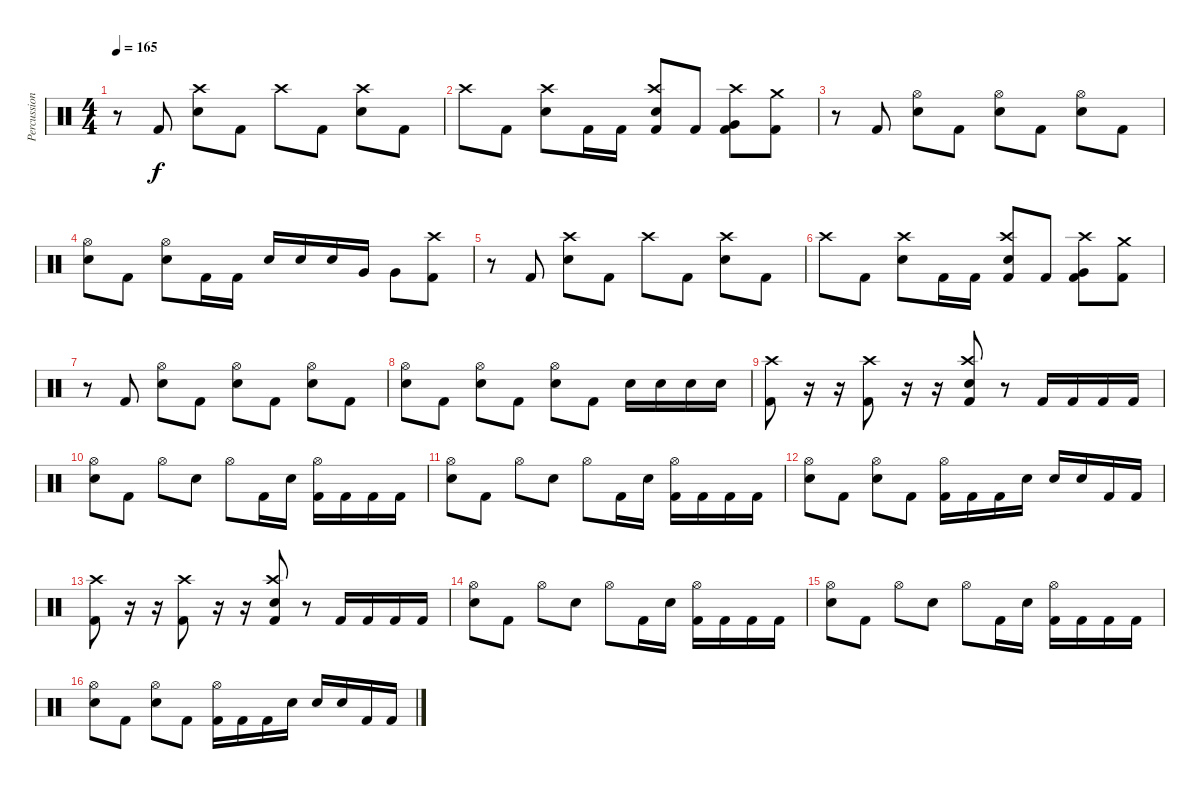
\track ("Percussion" "Percussion") {instrument percussion}
\staff {score}
\articulation defaults
\ts (4 4)
\tempo 165
\clef neutral
\ks c
r.8{dy f} "Kick (hit) 2".8 ("Crash high (hit)" "Electric Snare (hit)").8 "Kick (hit) 2".8 "Crash high (hit)".8 "Kick (hit) 2".8 ("Crash high (hit)" "Electric Snare (hit)").8 "Kick (hit) 2".8 |
"Crash high (hit)".8 "Kick (hit) 2".8 ("Crash high (hit)" "Electric Snare (hit)").8 "Kick (hit) 2".16 "Kick (hit) 2".16 ("Crash high (hit)" "Electric Snare (hit)" "Kick (hit) 2").8 "Kick (hit) 2".8 ("Crash high (hit)" "Very Low Tom (hit)" "Kick (hit) 2").8 ("Crash medium (hit)" "Kick (hit) 2").8 |
r.8 "Kick (hit) 2".8 ("Hi-Hat (open)" "Electric Snare (hit)").8 "Kick (hit) 2".8 ("Hi-Hat (open)" "Electric Snare (hit)").8 "Kick (hit) 2".8 ("Hi-Hat (open)" "Electric Snare (hit)").8 "Kick (hit) 2".8 |
("Hi-Hat (open)" "Electric Snare (hit)").8 "Kick (hit) 2".8 ("Hi-Hat (open)" "Electric Snare (hit)").8 "Kick (hit) 2".16 "Kick (hit) 2".16 "Electric Snare (hit)".16 "Electric Snare (hit)".16 "Electric Snare (hit)".16 "Very Low Tom (hit)".16 "Very Low Tom (hit)".8 ("Crash high (hit)" "Kick (hit) 2").8 |
r.8 "Kick (hit) 2".8 ("Crash high (hit)" "Electric Snare (hit)").8 "Kick (hit) 2".8 "Crash high (hit)".8 "Kick (hit) 2".8 ("Crash high (hit)" "Electric Snare (hit)").8 "Kick (hit) 2".8 |
"Crash high (hit)".8 "Kick (hit) 2".8 ("Crash high (hit)" "Electric Snare (hit)").8 "Kick (hit) 2".16 "Kick (hit) 2".16 ("Crash high (hit)" "Electric Snare (hit)" "Kick (hit) 2").8 "Kick (hit) 2".8 ("Crash high (hit)" "Very Low Tom (hit)" "Kick (hit) 2").8 ("Crash medium (hit)" "Kick (hit) 2").8 |
r.8 "Kick (hit) 2".8 ("Hi-Hat (open)" "Electric Snare (hit)").8 "Kick (hit) 2".8 ("Hi-Hat (open)" "Electric Snare (hit)").8 "Kick (hit) 2".8 ("Hi-Hat (open)" "Electric Snare (hit)").8 "Kick (hit) 2".8 |
("Hi-Hat (open)" "Electric Snare (hit)").8 "Kick (hit) 2".8 ("Hi-Hat (open)" "Electric Snare (hit)").8 "Kick (hit) 2".8 ("Hi-Hat (open)" "Electric Snare (hit)").8 "Kick (hit) 2".8 "Electric Snare (hit)".16 "Electric Snare (hit)".16 "Electric Snare (hit)".16 "Electric Snare (hit)".16 |
("Crash high (hit)" "Kick (hit) 2").8 r.16 r.16 ("Crash high (hit)" "Kick (hit) 2").8 r.16 r.16 ("Crash high (hit)" "Electric Snare (hit)" "Kick (hit) 2").8 r.8 "Kick (hit) 2".16 "Kick (hit) 2".16 "Kick (hit) 2".16 "Kick (hit) 2".16 |
("Hi-Hat (open)" "Electric Snare (hit)").8 "Kick (hit) 2".8 "Hi-Hat (open)".8 "Electric Snare (hit)".8 "Hi-Hat (open)".8 "Kick (hit) 2".16 "Electric Snare (hit)".16 ("Hi-Hat (open)" "Kick (hit) 2").16 "Kick (hit) 2".16 "Kick (hit) 2".16 "Kick (hit) 2".16 |
("Hi-Hat (open)" "Electric Snare (hit)").8 "Kick (hit) 2".8 "Hi-Hat (open)".8 "Electric Snare (hit)".8 "Hi-Hat (open)".8 "Kick (hit) 2".16 "Electric Snare (hit)".16 ("Hi-Hat (open)" "Kick (hit) 2").16 "Kick (hit) 2".16 "Kick (hit) 2".16 "Kick (hit) 2".16 |
("Hi-Hat (open)" "Electric Snare (hit)").8 "Kick (hit) 2".8 ("Hi-Hat (open)" "Electric Snare (hit)").8 "Kick (hit) 2".8 ("Hi-Hat (open)" "Kick (hit) 2").16 "Kick (hit) 2".16 "Kick (hit) 2".16 "Electric Snare (hit)".16 "Electric Snare (hit)".16 "Electric Snare (hit)".16 "Kick (hit) 2".16 "Kick (hit) 2".16 |
("Crash high (hit)" "Kick (hit) 2").8 r.16 r.16 ("Crash high (hit)" "Kick (hit) 2").8 r.16 r.16 ("Crash high (hit)" "Electric Snare (hit)" "Kick (hit) 2").8 r.8 "Kick (hit) 2".16 "Kick (hit) 2".16 "Kick (hit) 2".16 "Kick (hit) 2".16 |
("Hi-Hat (open)" "Electric Snare (hit)").8 "Kick (hit) 2".8 "Hi-Hat (open)".8 "Electric Snare (hit)".8 "Hi-Hat (open)".8 "Kick (hit) 2".16 "Electric Snare (hit)".16 ("Hi-Hat (open)" "Kick (hit) 2").16 "Kick (hit) 2".16 "Kick (hit) 2".16 "Kick (hit) 2".16 |
("Hi-Hat (open)" "Electric Snare (hit)").8 "Kick (hit) 2".8 "Hi-Hat (open)".8 "Electric Snare (hit)".8 "Hi-Hat (open)".8 "Kick (hit) 2".16 "Electric Snare (hit)".16 ("Hi-Hat (open)" "Kick (hit) 2").16 "Kick (hit) 2".16 "Kick (hit) 2".16 "Kick (hit) 2".16 |
("Hi-Hat (open)" "Electric Snare (hit)").8 "Kick (hit) 2".8 ("Hi-Hat (open)" "Electric Snare (hit)").8 "Kick (hit) 2".8 ("Hi-Hat (open)" "Kick (hit) 2").16 "Kick (hit) 2".16 "Kick (hit) 2".16 "Electric Snare (hit)".16 "Electric Snare (hit)".16 "Electric Snare (hit)".16 "Kick (hit) 2".16 "Kick (hit) 2".16
